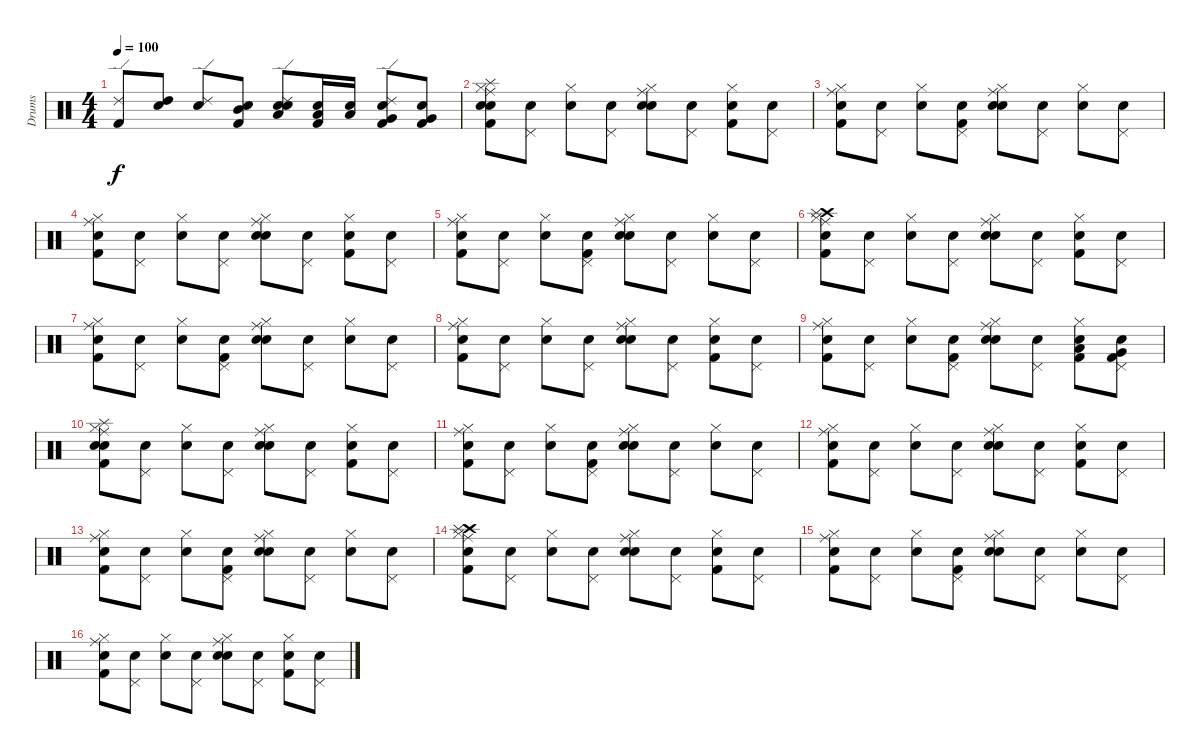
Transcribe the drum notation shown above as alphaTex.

\track ("Drums" "Drums") {instrument percussion}
\staff {score}
\articulation defaults
\ts (4 4)
\tempo 100
\clef neutral
\ks c
("Kick (hit) 2" "Ride (edge) 2").8{dy f} ("Snare (hit)" "High Tom (hit)").8 ("Snare (hit)" "Ride (edge) 2").8 ("Snare (hit)" "Mid Tom (hit)" "Kick (hit) 2").8 ("Snare (hit)" "Low Tom (hit)" "Snare (hit) 2" "Ride (edge) 2").8 ("Snare (hit)" "Low Tom (hit)" "Kick (hit) 2").16 ("Snare (hit)" "Low Tom (hit)").16 ("Snare (hit)" "Very Low Tom (hit)" "Kick (hit) 2" "Ride (edge) 2").8 ("Snare (hit)" "Very Low Tom (hit)" "Kick (hit) 2").8 |
("Snare (hit)" "Ride (middle)" "Hi-Hat (closed)" "Kick (hit) 2" "Snare (hit) 2" "Splash (hit)").8 ("Snare (hit)" "Pedal Hi-Hat (hit)").8 ("Snare (hit)" "Hi-Hat (closed)").8 ("Snare (hit)" "Pedal Hi-Hat (hit)").8 ("Snare (hit)" "Ride (middle)" "Hi-Hat (closed)" "Snare (hit) 2").8 ("Snare (hit)" "Pedal Hi-Hat (hit)").8 ("Snare (hit)" "Hi-Hat (closed)" "Kick (hit) 2").8 ("Snare (hit)" "Pedal Hi-Hat (hit)").8 |
("Snare (hit)" "Ride (middle)" "Hi-Hat (closed)" "Kick (hit) 2").8 ("Snare (hit)" "Pedal Hi-Hat (hit)").8 ("Snare (hit)" "Hi-Hat (closed)").8 ("Snare (hit)" "Pedal Hi-Hat (hit)" "Kick (hit) 2").8 ("Snare (hit)" "Ride (middle)" "Hi-Hat (closed)" "Snare (hit) 2").8 ("Snare (hit)" "Pedal Hi-Hat (hit)").8 ("Snare (hit)" "Hi-Hat (closed)").8 ("Snare (hit)" "Pedal Hi-Hat (hit)").8 |
("Snare (hit)" "Kick (hit) 2" "Ride (middle)" "Hi-Hat (closed)").8 ("Snare (hit)" "Pedal Hi-Hat (hit)").8 ("Snare (hit)" "Hi-Hat (closed)").8 ("Snare (hit)" "Pedal Hi-Hat (hit)").8 ("Snare (hit)" "Ride (middle)" "Hi-Hat (closed)" "Snare (hit) 2").8 ("Snare (hit)" "Pedal Hi-Hat (hit)").8 ("Snare (hit)" "Hi-Hat (closed)" "Kick (hit) 2").8 ("Snare (hit)" "Pedal Hi-Hat (hit)").8 |
("Snare (hit)" "Ride (middle)" "Hi-Hat (closed)" "Kick (hit) 2").8 ("Snare (hit)" "Pedal Hi-Hat (hit)").8 ("Snare (hit)" "Hi-Hat (closed)").8 ("Snare (hit)" "Pedal Hi-Hat (hit)" "Kick (hit) 2").8 ("Snare (hit)" "Ride (middle)" "Hi-Hat (closed)" "Snare (hit) 2").8 ("Snare (hit)" "Pedal Hi-Hat (hit)").8 ("Snare (hit)" "Hi-Hat (closed)").8 ("Snare (hit)" "Pedal Hi-Hat (hit)").8 |
("Snare (hit)" "Hi-Hat (closed)" "Ride (middle)" "Kick (hit) 2" "Crash high (hit)" "Splash (hit)").8 ("Snare (hit)" "Pedal Hi-Hat (hit)").8 ("Snare (hit)" "Hi-Hat (closed)").8 ("Snare (hit)" "Pedal Hi-Hat (hit)").8 ("Snare (hit)" "Ride (middle)" "Hi-Hat (closed)" "Snare (hit) 2").8 ("Snare (hit)" "Pedal Hi-Hat (hit)").8 ("Snare (hit)" "Hi-Hat (closed)" "Kick (hit) 2").8 ("Snare (hit)" "Pedal Hi-Hat (hit)").8 |
("Snare (hit)" "Ride (middle)" "Hi-Hat (closed)" "Kick (hit) 2").8 ("Snare (hit)" "Pedal Hi-Hat (hit)").8 ("Snare (hit)" "Hi-Hat (closed)").8 ("Snare (hit)" "Pedal Hi-Hat (hit)" "Kick (hit) 2").8 ("Snare (hit)" "Ride (middle)" "Hi-Hat (closed)" "Snare (hit) 2").8 ("Snare (hit)" "Pedal Hi-Hat (hit)").8 ("Snare (hit)" "Hi-Hat (closed)").8 ("Snare (hit)" "Pedal Hi-Hat (hit)").8 |
("Snare (hit)" "Kick (hit) 2" "Ride (middle)" "Hi-Hat (closed)").8 ("Snare (hit)" "Pedal Hi-Hat (hit)").8 ("Snare (hit)" "Hi-Hat (closed)").8 ("Snare (hit)" "Pedal Hi-Hat (hit)").8 ("Snare (hit)" "Ride (middle)" "Hi-Hat (closed)" "Snare (hit) 2").8 ("Snare (hit)" "Pedal Hi-Hat (hit)").8 ("Snare (hit)" "Hi-Hat (closed)" "Kick (hit) 2").8 ("Snare (hit)" "Pedal Hi-Hat (hit)").8 |
("Snare (hit)" "Ride (middle)" "Hi-Hat (closed)" "Kick (hit) 2").8 ("Snare (hit)" "Pedal Hi-Hat (hit)").8 ("Snare (hit)" "Hi-Hat (closed)").8 ("Snare (hit)" "Pedal Hi-Hat (hit)" "Kick (hit) 2").8 ("Snare (hit)" "Ride (middle)" "Hi-Hat (closed)" "Snare (hit) 2").8 ("Snare (hit)" "Pedal Hi-Hat (hit)").8 ("Snare (hit)" "Kick (hit) 2" "Low Tom (hit)" "Hi-Hat (closed)").8 ("Snare (hit)" "Very Low Tom (hit)" "Kick (hit) 2" "Pedal Hi-Hat (hit)").8 |
("Snare (hit)" "Ride (middle)" "Hi-Hat (closed)" "Kick (hit) 2" "Snare (hit) 2" "Splash (hit)").8 ("Snare (hit)" "Pedal Hi-Hat (hit)").8 ("Snare (hit)" "Hi-Hat (closed)").8 ("Snare (hit)" "Pedal Hi-Hat (hit)").8 ("Snare (hit)" "Ride (middle)" "Hi-Hat (closed)" "Snare (hit) 2").8 ("Snare (hit)" "Pedal Hi-Hat (hit)").8 ("Snare (hit)" "Hi-Hat (closed)" "Kick (hit) 2").8 ("Snare (hit)" "Pedal Hi-Hat (hit)").8 |
("Snare (hit)" "Ride (middle)" "Hi-Hat (closed)" "Kick (hit) 2").8 ("Snare (hit)" "Pedal Hi-Hat (hit)").8 ("Snare (hit)" "Hi-Hat (closed)").8 ("Snare (hit)" "Pedal Hi-Hat (hit)" "Kick (hit) 2").8 ("Snare (hit)" "Ride (middle)" "Hi-Hat (closed)" "Snare (hit) 2").8 ("Snare (hit)" "Pedal Hi-Hat (hit)").8 ("Snare (hit)" "Hi-Hat (closed)").8 ("Snare (hit)" "Pedal Hi-Hat (hit)").8 |
("Snare (hit)" "Kick (hit) 2" "Ride (middle)" "Hi-Hat (closed)").8 ("Snare (hit)" "Pedal Hi-Hat (hit)").8 ("Snare (hit)" "Hi-Hat (closed)").8 ("Snare (hit)" "Pedal Hi-Hat (hit)").8 ("Snare (hit)" "Ride (middle)" "Hi-Hat (closed)" "Snare (hit) 2").8 ("Snare (hit)" "Pedal Hi-Hat (hit)").8 ("Snare (hit)" "Hi-Hat (closed)" "Kick (hit) 2").8 ("Snare (hit)" "Pedal Hi-Hat (hit)").8 |
("Snare (hit)" "Ride (middle)" "Hi-Hat (closed)" "Kick (hit) 2").8 ("Snare (hit)" "Pedal Hi-Hat (hit)").8 ("Snare (hit)" "Hi-Hat (closed)").8 ("Snare (hit)" "Pedal Hi-Hat (hit)" "Kick (hit) 2").8 ("Snare (hit)" "Ride (middle)" "Hi-Hat (closed)" "Snare (hit) 2").8 ("Snare (hit)" "Pedal Hi-Hat (hit)").8 ("Snare (hit)" "Hi-Hat (closed)").8 ("Snare (hit)" "Pedal Hi-Hat (hit)").8 |
("Snare (hit)" "Hi-Hat (closed)" "Ride (middle)" "Kick (hit) 2" "Crash high (hit)" "Splash (hit)").8 ("Snare (hit)" "Pedal Hi-Hat (hit)").8 ("Snare (hit)" "Hi-Hat (closed)").8 ("Snare (hit)" "Pedal Hi-Hat (hit)").8 ("Snare (hit)" "Ride (middle)" "Hi-Hat (closed)" "Snare (hit) 2").8 ("Snare (hit)" "Pedal Hi-Hat (hit)").8 ("Snare (hit)" "Hi-Hat (closed)" "Kick (hit) 2").8 ("Snare (hit)" "Pedal Hi-Hat (hit)").8 |
("Snare (hit)" "Ride (middle)" "Hi-Hat (closed)" "Kick (hit) 2").8 ("Snare (hit)" "Pedal Hi-Hat (hit)").8 ("Snare (hit)" "Hi-Hat (closed)").8 ("Snare (hit)" "Pedal Hi-Hat (hit)" "Kick (hit) 2").8 ("Snare (hit)" "Ride (middle)" "Hi-Hat (closed)" "Snare (hit) 2").8 ("Snare (hit)" "Pedal Hi-Hat (hit)").8 ("Snare (hit)" "Hi-Hat (closed)").8 ("Snare (hit)" "Pedal Hi-Hat (hit)").8 |
("Snare (hit)" "Kick (hit) 2" "Ride (middle)" "Hi-Hat (closed)").8 ("Snare (hit)" "Pedal Hi-Hat (hit)").8 ("Snare (hit)" "Hi-Hat (closed)").8 ("Snare (hit)" "Pedal Hi-Hat (hit)").8 ("Snare (hit)" "Ride (middle)" "Hi-Hat (closed)" "Snare (hit) 2").8 ("Snare (hit)" "Pedal Hi-Hat (hit)").8 ("Snare (hit)" "Hi-Hat (closed)" "Kick (hit) 2").8 ("Snare (hit)" "Pedal Hi-Hat (hit)").8
